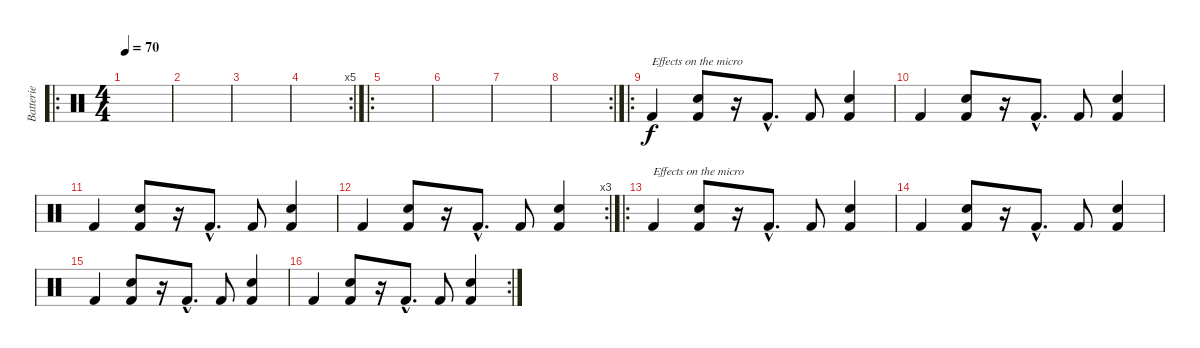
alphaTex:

\track ("Batterie" "Batterie") {instrument percussion}
\staff {score}
\articulation defaults
\ro
\ts (4 4)
\tempo 70
\clef neutral
\ks c
|
|
|
\rc 5
|
\ro
|
|
|
\rc 2
|
\ro "Kick (hit) 2".4{txt "Effects on the micro"}
("Electric Snare (hit)" "Kick (hit) 2").8 r.16 "Kick (hit) 2"{hac}.8{d} "Kick (hit) 2".8 ("Electric Snare (hit)" "Kick (hit) 2").4 |
"Kick (hit) 2".4 ("Electric Snare (hit)" "Kick (hit) 2").8 r.16 "Kick (hit) 2"{hac}.8{d} "Kick (hit) 2".8 ("Electric Snare (hit)" "Kick (hit) 2").4 |
"Kick (hit) 2".4 ("Electric Snare (hit)" "Kick (hit) 2").8 r.16 "Kick (hit) 2"{hac}.8{d} "Kick (hit) 2".8 ("Electric Snare (hit)" "Kick (hit) 2").4 |
\rc 3 "Kick (hit) 2".4
("Electric Snare (hit)" "Kick (hit) 2").8 r.16 "Kick (hit) 2"{hac}.8{d} "Kick (hit) 2".8 ("Electric Snare (hit)" "Kick (hit) 2").4 |
\ro "Kick (hit) 2".4{txt "Effects on the micro"}
("Electric Snare (hit)" "Kick (hit) 2").8 r.16 "Kick (hit) 2"{hac}.8{d} "Kick (hit) 2".8 ("Electric Snare (hit)" "Kick (hit) 2").4 |
"Kick (hit) 2".4 ("Electric Snare (hit)" "Kick (hit) 2").8 r.16 "Kick (hit) 2"{hac}.8{d} "Kick (hit) 2".8 ("Electric Snare (hit)" "Kick (hit) 2").4 |
"Kick (hit) 2".4 ("Electric Snare (hit)" "Kick (hit) 2").8 r.16 "Kick (hit) 2"{hac}.8{d} "Kick (hit) 2".8 ("Electric Snare (hit)" "Kick (hit) 2").4 |
\rc 2 "Kick (hit) 2".4
("Electric Snare (hit)" "Kick (hit) 2").8 r.16 "Kick (hit) 2"{hac}.8{d} "Kick (hit) 2".8 ("Electric Snare (hit)" "Kick (hit) 2").4
